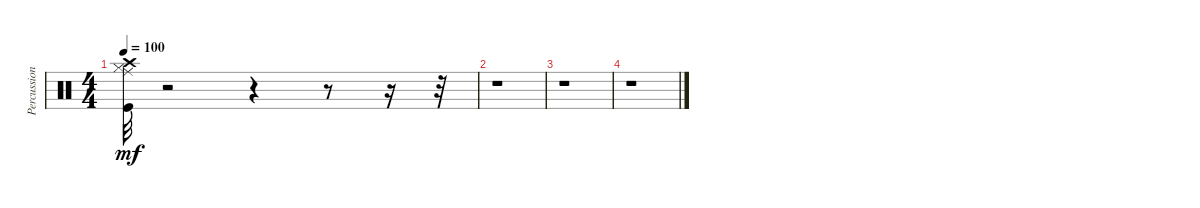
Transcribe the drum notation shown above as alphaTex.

\track ("Percussions" "Percussion") {instrument percussion}
\staff {score}
\articulation defaults
\ts (4 4)
\tempo 100
\clef neutral
\ks c
("Kick (hit)" "Hi-Hat (closed)" "Crash high (hit)" "Ride (middle)").32{dy mf} r.2 r.4 r.8 r.16 r.32 |
r.1 |
r.1 |
r.1
